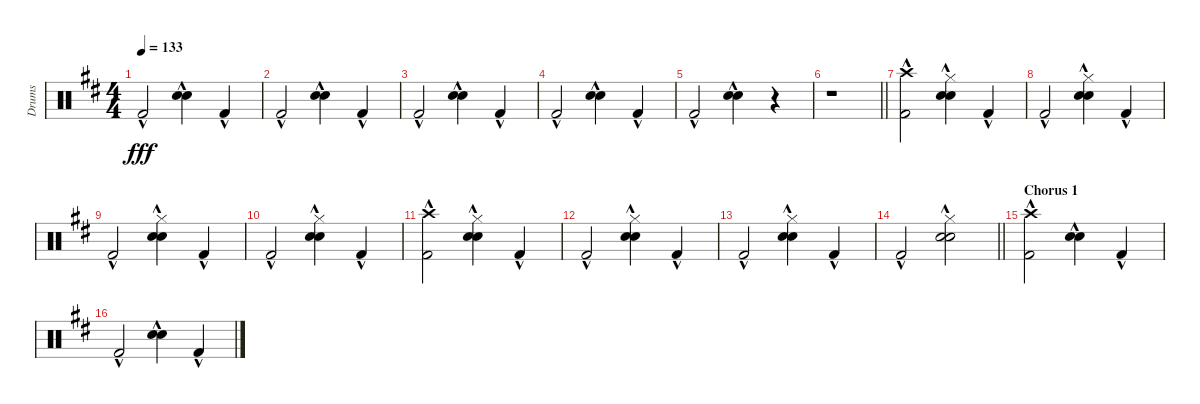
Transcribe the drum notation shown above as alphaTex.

\track ("Drums" "Drums") {instrument percussion}
\staff {score}
\articulation defaults
\ts (4 4)
\tempo 133
\clef neutral
\ks bminor "Kick (hit) 2"{hac}.2{dy fff}
("Hand Clap (hit)"{hac} "Snare (hit) 2"{hac}).4 "Kick (hit) 2"{hac}.4 |
"Kick (hit) 2"{hac}.2 ("Hand Clap (hit)"{hac} "Snare (hit) 2"{hac}).4 "Kick (hit) 2"{hac}.4 |
"Kick (hit) 2"{hac}.2 ("Hand Clap (hit)"{hac} "Snare (hit) 2"{hac}).4 "Kick (hit) 2"{hac}.4 |
"Kick (hit) 2"{hac}.2 ("Hand Clap (hit)"{hac} "Snare (hit) 2"{hac}).4 "Kick (hit) 2"{hac}.4 |
"Kick (hit) 2"{hac}.2 ("Hand Clap (hit)"{hac} "Snare (hit) 2"{hac}).4 r.4 |
\barLineRight lightlight
r.1 |
("Crash high (hit)"{hac} "Kick (hit) 2"{hac}).2 ("Hi-Hat (closed)"{hac} "Hand Clap (hit)"{hac} "Snare (hit) 2"{hac}).4 "Kick (hit) 2"{hac}.4 |
"Kick (hit) 2"{hac}.2 ("Hi-Hat (closed)"{hac} "Hand Clap (hit)"{hac} "Snare (hit) 2"{hac}).4 "Kick (hit) 2"{hac}.4 |
"Kick (hit) 2"{hac}.2 ("Hi-Hat (closed)"{hac} "Hand Clap (hit)"{hac} "Snare (hit) 2"{hac}).4 "Kick (hit) 2"{hac}.4 |
"Kick (hit) 2"{hac}.2 ("Hi-Hat (closed)"{hac} "Hand Clap (hit)"{hac} "Snare (hit) 2"{hac}).4 "Kick (hit) 2"{hac}.4 |
("Crash high (hit)"{hac} "Kick (hit) 2"{hac}).2 ("Hi-Hat (closed)"{hac} "Hand Clap (hit)"{hac} "Snare (hit) 2"{hac}).4 "Kick (hit) 2"{hac}.4 |
"Kick (hit) 2"{hac}.2 ("Hi-Hat (closed)"{hac} "Hand Clap (hit)"{hac} "Snare (hit) 2"{hac}).4 "Kick (hit) 2"{hac}.4 |
"Kick (hit) 2"{hac}.2 ("Hi-Hat (closed)"{hac} "Hand Clap (hit)"{hac} "Snare (hit) 2"{hac}).4 "Kick (hit) 2"{hac}.4 |
\barLineRight lightlight "Kick (hit) 2"{hac}.2
("Hi-Hat (closed)"{hac} "Hand Clap (hit)"{hac} "Snare (hit) 2"{hac}).2 |
\section ("" "Chorus 1")
("Crash high (hit)"{hac} "Kick (hit) 2"{hac}).2 ("Hand Clap (hit)"{hac} "Snare (hit) 2"{hac}).4 "Kick (hit) 2"{hac}.4 |
"Kick (hit) 2"{hac}.2 ("Hand Clap (hit)"{hac} "Snare (hit) 2"{hac}).4 "Kick (hit) 2"{hac}.4
